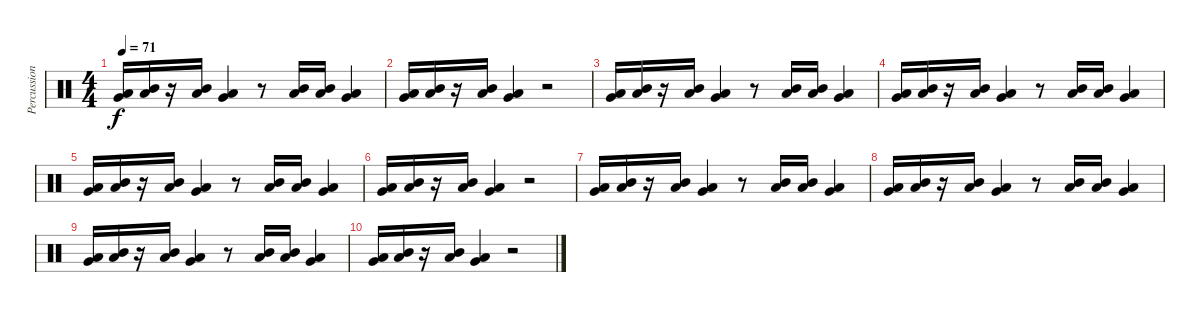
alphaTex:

\track ("Percussion" "Percussion") {instrument percussion}
\staff {score}
\articulation defaults
\ts (4 4)
\tempo 71
\clef neutral
\ks c
("Very Low Tom (hit)" "Low Floor Tom (hit)").16{dy f} ("Mid Tom (hit)" "Low Tom (hit)").16 r.16 ("Mid Tom (hit)" "Low Tom (hit)").16 ("Very Low Tom (hit)" "Low Floor Tom (hit)").4 r.8 ("Mid Tom (hit)" "Low Tom (hit)").16 ("Mid Tom (hit)" "Low Tom (hit)").16 ("Very Low Tom (hit)" "Low Floor Tom (hit)").4 |
("Very Low Tom (hit)" "Low Floor Tom (hit)").16 ("Mid Tom (hit)" "Low Tom (hit)").16 r.16 ("Mid Tom (hit)" "Low Tom (hit)").16 ("Very Low Tom (hit)" "Low Floor Tom (hit)").4 r.2 |
("Very Low Tom (hit)" "Low Floor Tom (hit)").16 ("Mid Tom (hit)" "Low Tom (hit)").16 r.16 ("Mid Tom (hit)" "Low Tom (hit)").16 ("Very Low Tom (hit)" "Low Floor Tom (hit)").4 r.8 ("Mid Tom (hit)" "Low Tom (hit)").16 ("Mid Tom (hit)" "Low Tom (hit)").16 ("Very Low Tom (hit)" "Low Floor Tom (hit)").4 |
("Very Low Tom (hit)" "Low Floor Tom (hit)").16 ("Mid Tom (hit)" "Low Tom (hit)").16 r.16 ("Mid Tom (hit)" "Low Tom (hit)").16 ("Very Low Tom (hit)" "Low Floor Tom (hit)").4 r.8 ("Mid Tom (hit)" "Low Tom (hit)").16 ("Mid Tom (hit)" "Low Tom (hit)").16 ("Very Low Tom (hit)" "Low Floor Tom (hit)").4 |
("Very Low Tom (hit)" "Low Floor Tom (hit)").16 ("Mid Tom (hit)" "Low Tom (hit)").16 r.16 ("Mid Tom (hit)" "Low Tom (hit)").16 ("Very Low Tom (hit)" "Low Floor Tom (hit)").4 r.8 ("Mid Tom (hit)" "Low Tom (hit)").16 ("Mid Tom (hit)" "Low Tom (hit)").16 ("Very Low Tom (hit)" "Low Floor Tom (hit)").4 |
("Very Low Tom (hit)" "Low Floor Tom (hit)").16 ("Mid Tom (hit)" "Low Tom (hit)").16 r.16 ("Mid Tom (hit)" "Low Tom (hit)").16 ("Very Low Tom (hit)" "Low Floor Tom (hit)").4 r.2 |
("Very Low Tom (hit)" "Low Floor Tom (hit)").16 ("Mid Tom (hit)" "Low Tom (hit)").16 r.16 ("Mid Tom (hit)" "Low Tom (hit)").16 ("Very Low Tom (hit)" "Low Floor Tom (hit)").4 r.8 ("Mid Tom (hit)" "Low Tom (hit)").16 ("Mid Tom (hit)" "Low Tom (hit)").16 ("Very Low Tom (hit)" "Low Floor Tom (hit)").4 |
("Very Low Tom (hit)" "Low Floor Tom (hit)").16 ("Mid Tom (hit)" "Low Tom (hit)").16 r.16 ("Mid Tom (hit)" "Low Tom (hit)").16 ("Very Low Tom (hit)" "Low Floor Tom (hit)").4 r.8 ("Mid Tom (hit)" "Low Tom (hit)").16 ("Mid Tom (hit)" "Low Tom (hit)").16 ("Very Low Tom (hit)" "Low Floor Tom (hit)").4 |
("Very Low Tom (hit)" "Low Floor Tom (hit)").16 ("Mid Tom (hit)" "Low Tom (hit)").16 r.16 ("Mid Tom (hit)" "Low Tom (hit)").16 ("Very Low Tom (hit)" "Low Floor Tom (hit)").4 r.8 ("Mid Tom (hit)" "Low Tom (hit)").16 ("Mid Tom (hit)" "Low Tom (hit)").16 ("Very Low Tom (hit)" "Low Floor Tom (hit)").4 |
("Very Low Tom (hit)" "Low Floor Tom (hit)").16 ("Mid Tom (hit)" "Low Tom (hit)").16 r.16 ("Mid Tom (hit)" "Low Tom (hit)").16 ("Very Low Tom (hit)" "Low Floor Tom (hit)").4 r.2
